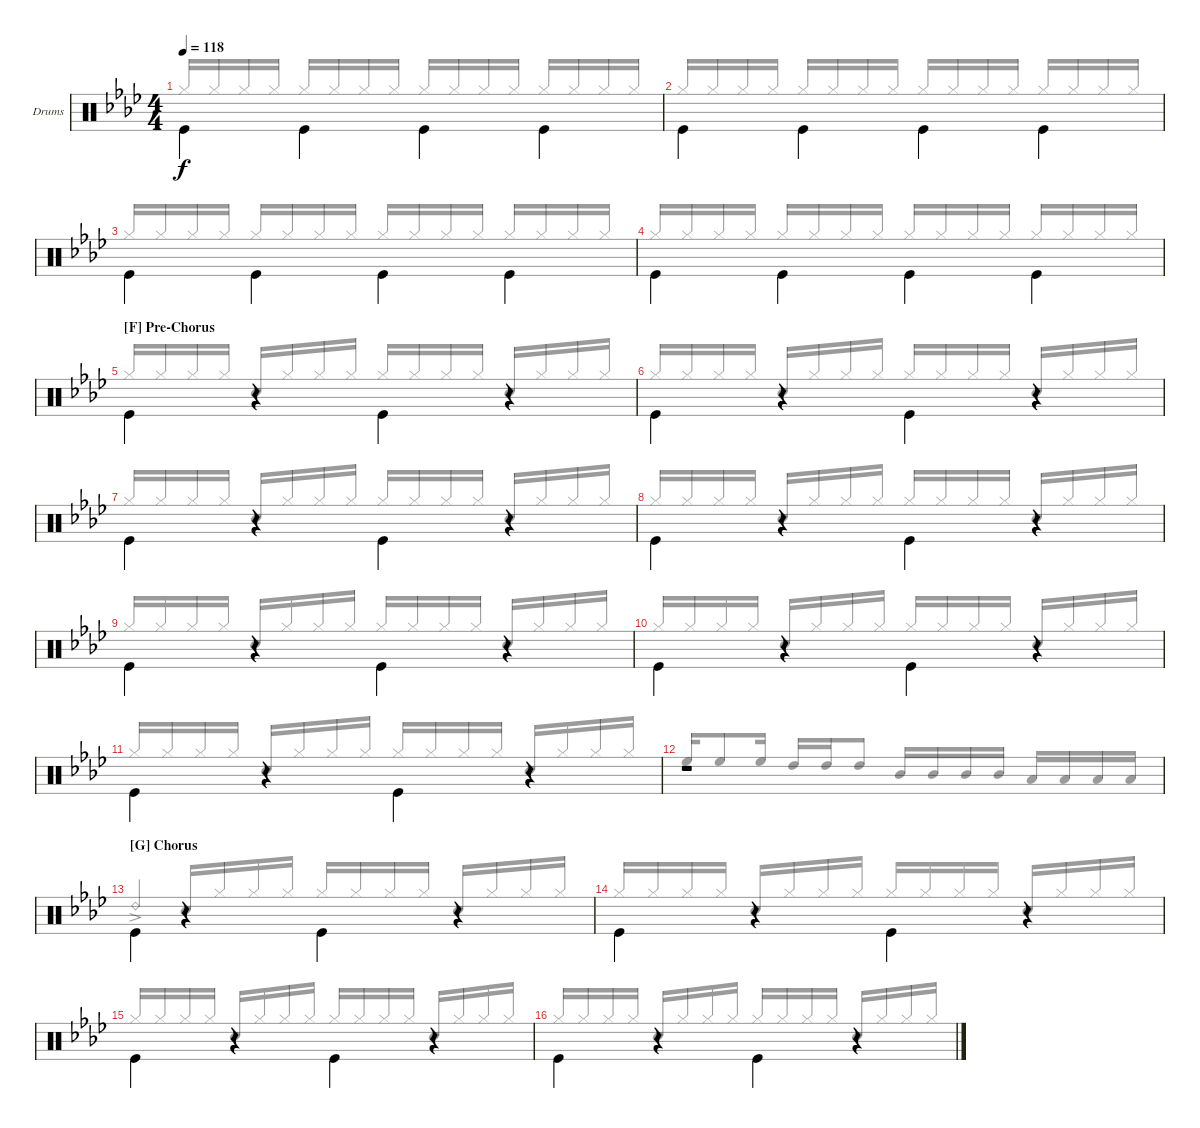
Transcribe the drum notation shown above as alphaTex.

\bracketExtendMode groupsimilarinstruments
\firstSystemTrackNameOrientation horizontal
\otherSystemsTrackNameOrientation horizontal
\track ("Drums" "Drums") {instrument percussion}
\staff {score}
\articulation defaults
\voice
\ts (4 4)
\tempo 118
\clef neutral
\scale
0.5
\ks ab "Kick (hit)".4{dy f beam invert} "Kick (hit)".4{beam invert} "Kick (hit)".4{beam invert} "Kick (hit)".4{beam invert}
|
\scale
0.5 "Kick (hit)".4{beam invert} "Kick (hit)".4{beam invert} "Kick (hit)".4{beam invert} "Kick (hit)".4{beam invert} |
\scale
0.5 "Kick (hit)".4{beam invert} "Kick (hit)".4{beam invert} "Kick (hit)".4{beam invert} "Kick (hit)".4{beam invert} |
\scale
0.5 "Kick (hit)".4{beam invert} "Kick (hit)".4{beam invert} "Kick (hit)".4{beam invert} "Kick (hit)".4{beam invert} |
\section ("F" "Pre-Chorus")
\scale
0.5 "Kick (hit)".4{beam invert} r.4{beam invert} "Kick (hit)".4{beam invert} r.4{beam invert} |
\scale
0.5 "Kick (hit)".4{beam invert} r.4{beam invert} "Kick (hit)".4{beam invert} r.4{beam invert} |
\scale
0.5 "Kick (hit)".4{beam invert} r.4{beam invert} "Kick (hit)".4{beam invert} r.4{beam invert} |
\scale
0.5 "Kick (hit)".4{beam invert} r.4{beam invert} "Kick (hit)".4{beam invert} r.4{beam invert} |
\scale
0.5 "Kick (hit)".4{beam invert} r.4{beam invert} "Kick (hit)".4{beam invert} r.4{beam invert} |
\scale
0.5 "Kick (hit)".4{beam invert} r.4{beam invert} "Kick (hit)".4{beam invert} r.4{beam invert} |
\scale
0.5 "Kick (hit)".4{beam invert} r.4{beam invert} "Kick (hit)".4{beam invert} r.4{beam invert} |
\scale
0.5 r.1 |
\section ("G" "Chorus")
\scale
0.5 "Kick (hit)".4{beam invert} r.4{beam invert} "Kick (hit)".4{beam invert} r.4{beam invert} |
\scale
0.5 "Kick (hit)".4{beam invert} r.4{beam invert} "Kick (hit)".4{beam invert} r.4{beam invert} |
\scale
0.5 "Kick (hit)".4{beam invert} r.4{beam invert} "Kick (hit)".4{beam invert} r.4{beam invert} |
\scale
0.5 "Kick (hit)".4{beam invert} r.4{beam invert} "Kick (hit)".4{beam invert} r.4{beam invert}
\voice
\clef neutral
\ottava regular
\simile none
\scale
0.5
\ks ab "Hi-Hat (closed)".16{dy f beam invert beam merge} "Hi-Hat (closed)".16{beam merge} "Hi-Hat (closed)".16{beam merge} "Hi-Hat (closed)".16{beam split} "Hi-Hat (closed)".16{beam invert beam merge} "Hi-Hat (closed)".16{beam merge} "Hi-Hat (closed)".16{beam merge} "Hi-Hat (closed)".16{beam split} "Hi-Hat (closed)".16{beam invert beam merge} "Hi-Hat (closed)".16{beam merge} "Hi-Hat (closed)".16{beam merge} "Hi-Hat (closed)".16{beam split} "Hi-Hat (closed)".16{beam invert beam merge} "Hi-Hat (closed)".16{beam merge} "Hi-Hat (closed)".16{beam merge} "Hi-Hat (closed)".16{beam split}
|
\scale
0.5 "Hi-Hat (closed)".16{beam invert beam merge} "Hi-Hat (closed)".16{beam merge} "Hi-Hat (closed)".16{beam merge} "Hi-Hat (closed)".16{beam split} "Hi-Hat (closed)".16{beam invert beam merge} "Hi-Hat (closed)".16{beam merge} "Hi-Hat (closed)".16{beam merge} "Hi-Hat (closed)".16{beam split} "Hi-Hat (closed)".16{beam invert beam merge} "Hi-Hat (closed)".16{beam merge} "Hi-Hat (closed)".16{beam merge} "Hi-Hat (closed)".16{beam split} "Hi-Hat (closed)".16{beam invert beam merge} "Hi-Hat (closed)".16{beam merge} "Hi-Hat (closed)".16{beam merge} "Hi-Hat (closed)".16{beam split} |
\scale
0.5 "Hi-Hat (closed)".16{beam invert beam merge} "Hi-Hat (closed)".16{beam merge} "Hi-Hat (closed)".16{beam merge} "Hi-Hat (closed)".16{beam split} "Hi-Hat (closed)".16{beam invert beam merge} "Hi-Hat (closed)".16{beam merge} "Hi-Hat (closed)".16{beam merge} "Hi-Hat (closed)".16{beam split} "Hi-Hat (closed)".16{beam invert beam merge} "Hi-Hat (closed)".16{beam merge} "Hi-Hat (closed)".16{beam merge} "Hi-Hat (closed)".16{beam split} "Hi-Hat (closed)".16{beam invert beam merge} "Hi-Hat (closed)".16{beam merge} "Hi-Hat (closed)".16{beam merge} "Hi-Hat (closed)".16{beam split} |
\scale
0.5 "Hi-Hat (closed)".16{beam invert beam merge} "Hi-Hat (closed)".16{beam merge} "Hi-Hat (closed)".16{beam merge} "Hi-Hat (closed)".16{beam split} "Hi-Hat (closed)".16{beam invert beam merge} "Hi-Hat (closed)".16{beam merge} "Hi-Hat (closed)".16{beam merge} "Hi-Hat (closed)".16{beam split} "Hi-Hat (closed)".16{beam invert beam merge} "Hi-Hat (closed)".16{beam merge} "Hi-Hat (closed)".16{beam merge} "Hi-Hat (closed)".16{beam split} "Hi-Hat (closed)".16{beam invert beam merge} "Hi-Hat (closed)".16{beam merge} "Hi-Hat (closed)".16{beam merge} "Hi-Hat (closed)".16{beam split} |
\scale
0.5 "Hi-Hat (closed)".16{beam invert beam merge} "Hi-Hat (closed)".16{beam merge} "Hi-Hat (closed)".16{beam merge} "Hi-Hat (closed)".16{beam split} "Snare (hit) 2".16{beam invert beam merge} "Hi-Hat (closed)".16{beam merge} "Hi-Hat (closed)".16{beam merge} "Hi-Hat (closed)".16{beam split} "Hi-Hat (closed)".16{beam invert beam merge} "Hi-Hat (closed)".16{beam merge} "Hi-Hat (closed)".16{beam merge} "Hi-Hat (closed)".16{beam split} "Snare (hit) 2".16{beam invert beam merge} "Hi-Hat (closed)".16{beam merge} "Hi-Hat (closed)".16{beam merge} "Hi-Hat (closed)".16{beam split} |
\scale
0.5 "Hi-Hat (closed)".16{beam invert beam merge} "Hi-Hat (closed)".16{beam merge} "Hi-Hat (closed)".16{beam merge} "Hi-Hat (closed)".16{beam split} "Snare (hit) 2".16{beam invert beam merge} "Hi-Hat (closed)".16{beam merge} "Hi-Hat (closed)".16{beam merge} "Hi-Hat (closed)".16{beam split} "Hi-Hat (closed)".16{beam invert beam merge} "Hi-Hat (closed)".16{beam merge} "Hi-Hat (closed)".16{beam merge} "Hi-Hat (closed)".16{beam split} "Snare (hit) 2".16{beam invert beam merge} "Hi-Hat (closed)".16{beam merge} "Hi-Hat (closed)".16{beam merge} "Hi-Hat (closed)".16{beam split} |
\scale
0.5 "Hi-Hat (closed)".16{beam invert beam merge} "Hi-Hat (closed)".16{beam merge} "Hi-Hat (closed)".16{beam merge} "Hi-Hat (closed)".16{beam split} "Snare (hit) 2".16{beam invert beam merge} "Hi-Hat (closed)".16{beam merge} "Hi-Hat (closed)".16{beam merge} "Hi-Hat (closed)".16{beam split} "Hi-Hat (closed)".16{beam invert beam merge} "Hi-Hat (closed)".16{beam merge} "Hi-Hat (closed)".16{beam merge} "Hi-Hat (closed)".16{beam split} "Snare (hit) 2".16{beam invert beam merge} "Hi-Hat (closed)".16{beam merge} "Hi-Hat (closed)".16{beam merge} "Hi-Hat (closed)".16{beam split} |
\scale
0.5 "Hi-Hat (closed)".16{beam invert beam merge} "Hi-Hat (closed)".16{beam merge} "Hi-Hat (closed)".16{beam merge} "Hi-Hat (closed)".16{beam split} "Snare (hit) 2".16{beam invert beam merge} "Hi-Hat (closed)".16{beam merge} "Hi-Hat (closed)".16{beam merge} "Hi-Hat (closed)".16{beam split} "Hi-Hat (closed)".16{beam invert beam merge} "Hi-Hat (closed)".16{beam merge} "Hi-Hat (closed)".16{beam merge} "Hi-Hat (closed)".16{beam split} "Snare (hit) 2".16{beam invert beam merge} "Hi-Hat (closed)".16{beam merge} "Hi-Hat (closed)".16{beam merge} "Hi-Hat (closed)".16{beam split} |
\scale
0.5 "Hi-Hat (closed)".16{beam invert beam merge} "Hi-Hat (closed)".16{beam merge} "Hi-Hat (closed)".16{beam merge} "Hi-Hat (closed)".16{beam split} "Snare (hit) 2".16{beam invert beam merge} "Hi-Hat (closed)".16{beam merge} "Hi-Hat (closed)".16{beam merge} "Hi-Hat (closed)".16{beam split} "Hi-Hat (closed)".16{beam invert beam merge} "Hi-Hat (closed)".16{beam merge} "Hi-Hat (closed)".16{beam merge} "Hi-Hat (closed)".16{beam split} "Snare (hit) 2".16{beam invert beam merge} "Hi-Hat (closed)".16{beam merge} "Hi-Hat (closed)".16{beam merge} "Hi-Hat (closed)".16{beam split} |
\scale
0.5 "Hi-Hat (closed)".16{beam invert beam merge} "Hi-Hat (closed)".16{beam merge} "Hi-Hat (closed)".16{beam merge} "Hi-Hat (closed)".16{beam split} "Snare (hit) 2".16{beam invert beam merge} "Hi-Hat (closed)".16{beam merge} "Hi-Hat (closed)".16{beam merge} "Hi-Hat (closed)".16{beam split} "Hi-Hat (closed)".16{beam invert beam merge} "Hi-Hat (closed)".16{beam merge} "Hi-Hat (closed)".16{beam merge} "Hi-Hat (closed)".16{beam split} "Snare (hit) 2".16{beam invert beam merge} "Hi-Hat (closed)".16{beam merge} "Hi-Hat (closed)".16{beam merge} "Hi-Hat (closed)".16{beam split} |
\scale
0.5 "Hi-Hat (closed)".16{beam invert beam merge} "Hi-Hat (closed)".16{beam merge} "Hi-Hat (closed)".16{beam merge} "Hi-Hat (closed)".16{beam split} "Snare (hit) 2".16{beam invert beam merge} "Hi-Hat (closed)".16{beam merge} "Hi-Hat (closed)".16{beam merge} "Hi-Hat (closed)".16{beam split} "Hi-Hat (closed)".16{beam invert beam merge} "Hi-Hat (closed)".16{beam merge} "Hi-Hat (closed)".16{beam merge} "Hi-Hat (closed)".16{beam split} "Snare (hit) 2".16{beam invert beam merge} "Hi-Hat (closed)".16{beam merge} "Hi-Hat (closed)".16{beam merge} "Hi-Hat (closed)".16{beam split} |
\scale
0.5 "High Floor Tom (hit)".16{beam invert} "High Floor Tom (hit)".8 "High Floor Tom (hit)".16 "High Tom (hit)".16{beam invert} "High Tom (hit)".16 "High Tom (hit)".8 "Mid Tom (hit)".16{beam invert} "Mid Tom (hit)".16 "Mid Tom (hit)".16 "Mid Tom (hit)".16 "Low Tom (hit)".16{beam invert} "Low Tom (hit)".16 "Low Tom (hit)".16 "Low Tom (hit)".16 |
\scale
0.5 "Ride (bell) 2"{ac}.4{beam invert} "Snare (hit) 2".16{beam invert beam merge} "Hi-Hat (closed)".16{beam merge} "Hi-Hat (closed)".16{beam merge} "Hi-Hat (closed)".16{beam split} "Hi-Hat (closed)".16{beam invert beam merge} "Hi-Hat (closed)".16{beam merge} "Hi-Hat (closed)".16{beam merge} "Hi-Hat (closed)".16{beam split} "Snare (hit) 2".16{beam invert beam merge} "Hi-Hat (closed)".16{beam merge} "Hi-Hat (closed)".16{beam merge} "Hi-Hat (closed)".16{beam split} |
\scale
0.5 "Hi-Hat (closed)".16{beam invert beam merge} "Hi-Hat (closed)".16{beam merge} "Hi-Hat (closed)".16{beam merge} "Hi-Hat (closed)".16{beam split} "Snare (hit) 2".16{beam invert beam merge} "Hi-Hat (closed)".16{beam merge} "Hi-Hat (closed)".16{beam merge} "Hi-Hat (closed)".16{beam split} "Hi-Hat (closed)".16{beam invert beam merge} "Hi-Hat (closed)".16{beam merge} "Hi-Hat (closed)".16{beam merge} "Hi-Hat (closed)".16{beam split} "Snare (hit) 2".16{beam invert beam merge} "Hi-Hat (closed)".16{beam merge} "Hi-Hat (closed)".16{beam merge} "Hi-Hat (closed)".16{beam split} |
\scale
0.5 "Hi-Hat (closed)".16{beam invert beam merge} "Hi-Hat (closed)".16{beam merge} "Hi-Hat (closed)".16{beam merge} "Hi-Hat (closed)".16{beam split} "Snare (hit) 2".16{beam invert beam merge} "Hi-Hat (closed)".16{beam merge} "Hi-Hat (closed)".16{beam merge} "Hi-Hat (closed)".16{beam split} "Hi-Hat (closed)".16{beam invert beam merge} "Hi-Hat (closed)".16{beam merge} "Hi-Hat (closed)".16{beam merge} "Hi-Hat (closed)".16{beam split} "Snare (hit) 2".16{beam invert beam merge} "Hi-Hat (closed)".16{beam merge} "Hi-Hat (closed)".16{beam merge} "Hi-Hat (closed)".16{beam split} |
\scale
0.5 "Hi-Hat (closed)".16{beam invert beam merge} "Hi-Hat (closed)".16{beam merge} "Hi-Hat (closed)".16{beam merge} "Hi-Hat (closed)".16{beam split} "Snare (hit) 2".16{beam invert beam merge} "Hi-Hat (closed)".16{beam merge} "Hi-Hat (closed)".16{beam merge} "Hi-Hat (closed)".16{beam split} "Hi-Hat (closed)".16{beam invert beam merge} "Hi-Hat (closed)".16{beam merge} "Hi-Hat (closed)".16{beam merge} "Hi-Hat (closed)".16{beam split} "Snare (hit) 2".16{beam invert beam merge} "Hi-Hat (closed)".16{beam merge} "Hi-Hat (closed)".16{beam merge} "Hi-Hat (closed)".16{beam split}
